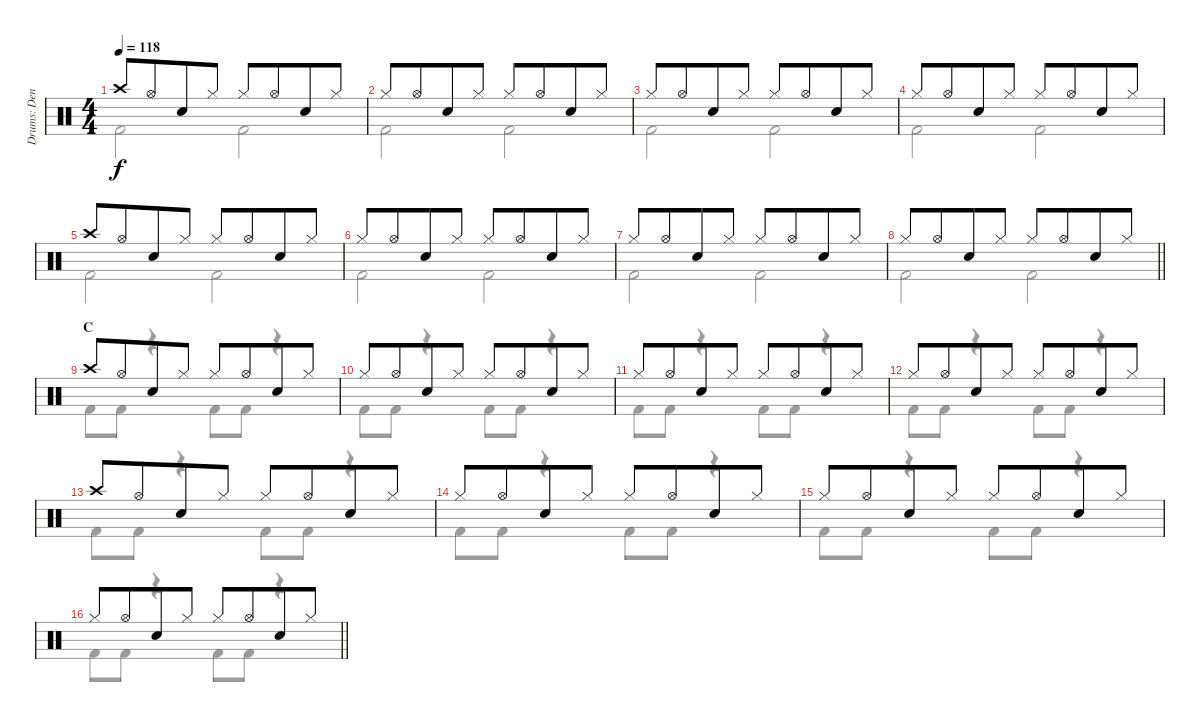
\track ("Drums: Denny" "Drums: Den") {instrument percussion}
\staff {score}
\articulation defaults
\voice
\ts (4 4)
\tempo 118
\clef neutral
\ks c "Crash high (hit)".8{dy f} "Hi-Hat (open)".8{beam merge} "Snare (hit) 2".8 "Hi-Hat (closed)".8 "Hi-Hat (closed)".8 "Hi-Hat (open)".8{beam merge} "Snare (hit) 2".8 "Hi-Hat (closed)".8
|
"Hi-Hat (closed)".8 "Hi-Hat (open)".8{beam merge} "Snare (hit) 2".8 "Hi-Hat (closed)".8 "Hi-Hat (closed)".8 "Hi-Hat (open)".8{beam merge} "Snare (hit) 2".8 "Hi-Hat (closed)".8 |
"Hi-Hat (closed)".8 "Hi-Hat (open)".8{beam merge} "Snare (hit) 2".8 "Hi-Hat (closed)".8 "Hi-Hat (closed)".8 "Hi-Hat (open)".8{beam merge} "Snare (hit) 2".8 "Hi-Hat (closed)".8 |
"Hi-Hat (closed)".8 "Hi-Hat (open)".8{beam merge} "Snare (hit) 2".8 "Hi-Hat (closed)".8 "Hi-Hat (closed)".8 "Hi-Hat (open)".8{beam merge} "Snare (hit) 2".8 "Hi-Hat (closed)".8 |
"Crash high (hit)".8 "Hi-Hat (open)".8{beam merge} "Snare (hit) 2".8 "Hi-Hat (closed)".8 "Hi-Hat (closed)".8 "Hi-Hat (open)".8{beam merge} "Snare (hit) 2".8 "Hi-Hat (closed)".8 |
"Hi-Hat (closed)".8 "Hi-Hat (open)".8{beam merge} "Snare (hit) 2".8 "Hi-Hat (closed)".8 "Hi-Hat (closed)".8 "Hi-Hat (open)".8{beam merge} "Snare (hit) 2".8 "Hi-Hat (closed)".8 |
"Hi-Hat (closed)".8 "Hi-Hat (open)".8{beam merge} "Snare (hit) 2".8 "Hi-Hat (closed)".8 "Hi-Hat (closed)".8 "Hi-Hat (open)".8{beam merge} "Snare (hit) 2".8 "Hi-Hat (closed)".8 |
\barLineRight lightlight "Hi-Hat (closed)".8 "Hi-Hat (open)".8{beam merge} "Snare (hit) 2".8 "Hi-Hat (closed)".8 "Hi-Hat (closed)".8 "Hi-Hat (open)".8{beam merge} "Snare (hit) 2".8 "Hi-Hat (closed)".8
|
\section ("" "C")
"Crash high (hit)".8 "Hi-Hat (open)".8{beam merge} "Snare (hit) 2".8 "Hi-Hat (closed)".8 "Hi-Hat (closed)".8 "Hi-Hat (open)".8{beam merge} "Snare (hit) 2".8 "Hi-Hat (closed)".8 |
"Hi-Hat (closed)".8 "Hi-Hat (open)".8{beam merge} "Snare (hit) 2".8 "Hi-Hat (closed)".8 "Hi-Hat (closed)".8 "Hi-Hat (open)".8{beam merge} "Snare (hit) 2".8 "Hi-Hat (closed)".8 |
"Hi-Hat (closed)".8 "Hi-Hat (open)".8{beam merge} "Snare (hit) 2".8 "Hi-Hat (closed)".8 "Hi-Hat (closed)".8 "Hi-Hat (open)".8{beam merge} "Snare (hit) 2".8 "Hi-Hat (closed)".8 |
"Hi-Hat (closed)".8 "Hi-Hat (open)".8{beam merge} "Snare (hit) 2".8 "Hi-Hat (closed)".8 "Hi-Hat (closed)".8 "Hi-Hat (open)".8{beam merge} "Snare (hit) 2".8 "Hi-Hat (closed)".8 |
"Crash high (hit)".8 "Hi-Hat (open)".8{beam merge} "Snare (hit) 2".8 "Hi-Hat (closed)".8 "Hi-Hat (closed)".8 "Hi-Hat (open)".8{beam merge} "Snare (hit) 2".8 "Hi-Hat (closed)".8 |
"Hi-Hat (closed)".8 "Hi-Hat (open)".8{beam merge} "Snare (hit) 2".8 "Hi-Hat (closed)".8 "Hi-Hat (closed)".8 "Hi-Hat (open)".8{beam merge} "Snare (hit) 2".8 "Hi-Hat (closed)".8 |
"Hi-Hat (closed)".8 "Hi-Hat (open)".8{beam merge} "Snare (hit) 2".8 "Hi-Hat (closed)".8 "Hi-Hat (closed)".8 "Hi-Hat (open)".8{beam merge} "Snare (hit) 2".8 "Hi-Hat (closed)".8 |
\barLineRight lightlight "Hi-Hat (closed)".8 "Hi-Hat (open)".8{beam merge} "Snare (hit) 2".8 "Hi-Hat (closed)".8 "Hi-Hat (closed)".8 "Hi-Hat (open)".8{beam merge} "Snare (hit) 2".8 "Hi-Hat (closed)".8
\voice
\clef neutral
\ottava regular
\simile none
\ks c "Kick (hit) 2".2{dy f} "Kick (hit) 2".2
|
"Kick (hit) 2".2 "Kick (hit) 2".2 |
"Kick (hit) 2".2 "Kick (hit) 2".2 |
"Kick (hit) 2".2 "Kick (hit) 2".2 |
"Kick (hit) 2".2 "Kick (hit) 2".2 |
"Kick (hit) 2".2 "Kick (hit) 2".2 |
"Kick (hit) 2".2 "Kick (hit) 2".2 |
\barLineRight lightlight "Kick (hit) 2".2 "Kick (hit) 2".2
|
"Kick (hit) 2".8 "Kick (hit) 2".8 r.4 "Kick (hit) 2".8 "Kick (hit) 2".8 r.4 |
"Kick (hit) 2".8 "Kick (hit) 2".8 r.4 "Kick (hit) 2".8 "Kick (hit) 2".8 r.4 |
"Kick (hit) 2".8 "Kick (hit) 2".8 r.4 "Kick (hit) 2".8 "Kick (hit) 2".8 r.4 |
"Kick (hit) 2".8 "Kick (hit) 2".8 r.4 "Kick (hit) 2".8 "Kick (hit) 2".8 r.4 |
"Kick (hit) 2".8 "Kick (hit) 2".8 r.4 "Kick (hit) 2".8 "Kick (hit) 2".8 r.4 |
"Kick (hit) 2".8 "Kick (hit) 2".8 r.4 "Kick (hit) 2".8 "Kick (hit) 2".8 r.4 |
"Kick (hit) 2".8 "Kick (hit) 2".8 r.4 "Kick (hit) 2".8 "Kick (hit) 2".8 r.4 |
\barLineRight lightlight "Kick (hit) 2".8 "Kick (hit) 2".8
r.4 "Kick (hit) 2".8 "Kick (hit) 2".8 r.4
